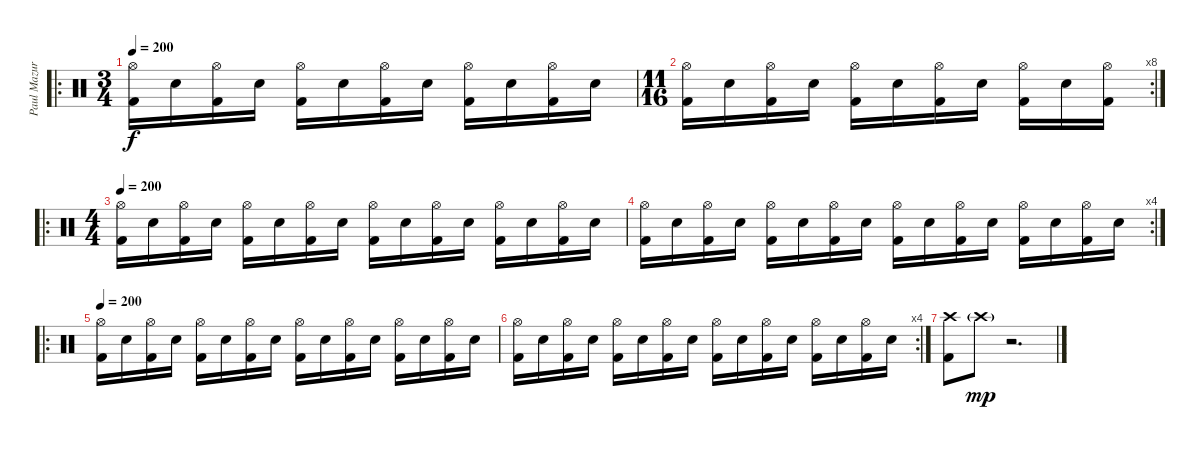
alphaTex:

\track ("Paul Mazurkiewicz" "Paul Mazur") {instrument percussion}
\staff {score}
\articulation defaults
\ro
\ts (3 4)
\tempo 200
\clef neutral
\ks c
("Hi-Hat (open)" "Kick (hit) 2").16{dy f} "Snare (hit) 2".16 ("Hi-Hat (open)" "Kick (hit) 2").16 "Snare (hit) 2".16 ("Hi-Hat (open)" "Kick (hit) 2").16 "Snare (hit) 2".16 ("Hi-Hat (open)" "Kick (hit) 2").16 "Snare (hit) 2".16 ("Hi-Hat (open)" "Kick (hit) 2").16 "Snare (hit) 2".16 ("Hi-Hat (open)" "Kick (hit) 2").16 "Snare (hit) 2".16 |
\rc 8
\ts (11 16)
("Hi-Hat (open)" "Kick (hit) 2").16 "Snare (hit) 2".16 ("Hi-Hat (open)" "Kick (hit) 2").16 "Snare (hit) 2".16 ("Hi-Hat (open)" "Kick (hit) 2").16 "Snare (hit) 2".16 ("Hi-Hat (open)" "Kick (hit) 2").16 "Snare (hit) 2".16 ("Hi-Hat (open)" "Kick (hit) 2").16 "Snare (hit) 2".16 ("Hi-Hat (open)" "Kick (hit) 2").16 |
\ro
\ts (4 4)
\tempo 200
("Hi-Hat (open)" "Kick (hit) 2").16 "Snare (hit) 2".16 ("Hi-Hat (open)" "Kick (hit) 2").16 "Snare (hit) 2".16 ("Hi-Hat (open)" "Kick (hit) 2").16 "Snare (hit) 2".16 ("Hi-Hat (open)" "Kick (hit) 2").16 "Snare (hit) 2".16 ("Hi-Hat (open)" "Kick (hit) 2").16 "Snare (hit) 2".16 ("Hi-Hat (open)" "Kick (hit) 2").16 "Snare (hit) 2".16 ("Hi-Hat (open)" "Kick (hit) 2").16 "Snare (hit) 2".16 ("Hi-Hat (open)" "Kick (hit) 2").16 "Snare (hit) 2".16 |
\rc 4
("Hi-Hat (open)" "Kick (hit) 2").16 "Snare (hit) 2".16 ("Hi-Hat (open)" "Kick (hit) 2").16 "Snare (hit) 2".16 ("Hi-Hat (open)" "Kick (hit) 2").16 "Snare (hit) 2".16 ("Hi-Hat (open)" "Kick (hit) 2").16 "Snare (hit) 2".16 ("Hi-Hat (open)" "Kick (hit) 2").16 "Snare (hit) 2".16 ("Hi-Hat (open)" "Kick (hit) 2").16 "Snare (hit) 2".16 ("Hi-Hat (open)" "Kick (hit) 2").16 "Snare (hit) 2".16 ("Hi-Hat (open)" "Kick (hit) 2").16 "Snare (hit) 2".16 |
\ro
\tempo 200
("Hi-Hat (open)" "Kick (hit) 2").16 "Snare (hit) 2".16 ("Hi-Hat (open)" "Kick (hit) 2").16 "Snare (hit) 2".16 ("Hi-Hat (open)" "Kick (hit) 2").16 "Snare (hit) 2".16 ("Hi-Hat (open)" "Kick (hit) 2").16 "Snare (hit) 2".16 ("Hi-Hat (open)" "Kick (hit) 2").16 "Snare (hit) 2".16 ("Hi-Hat (open)" "Kick (hit) 2").16 "Snare (hit) 2".16 ("Hi-Hat (open)" "Kick (hit) 2").16 "Snare (hit) 2".16 ("Hi-Hat (open)" "Kick (hit) 2").16 "Snare (hit) 2".16 |
\rc 4
("Hi-Hat (open)" "Kick (hit) 2").16 "Snare (hit) 2".16 ("Hi-Hat (open)" "Kick (hit) 2").16 "Snare (hit) 2".16 ("Hi-Hat (open)" "Kick (hit) 2").16 "Snare (hit) 2".16 ("Hi-Hat (open)" "Kick (hit) 2").16 "Snare (hit) 2".16 ("Hi-Hat (open)" "Kick (hit) 2").16 "Snare (hit) 2".16 ("Hi-Hat (open)" "Kick (hit) 2").16 "Snare (hit) 2".16 ("Hi-Hat (open)" "Kick (hit) 2").16 "Snare (hit) 2".16 ("Hi-Hat (open)" "Kick (hit) 2").16 "Snare (hit) 2".16 |
("Kick (hit) 2" "Crash high (hit)").8 "Crash high (hit)"{g}.8{dy mp} r.2{d}
